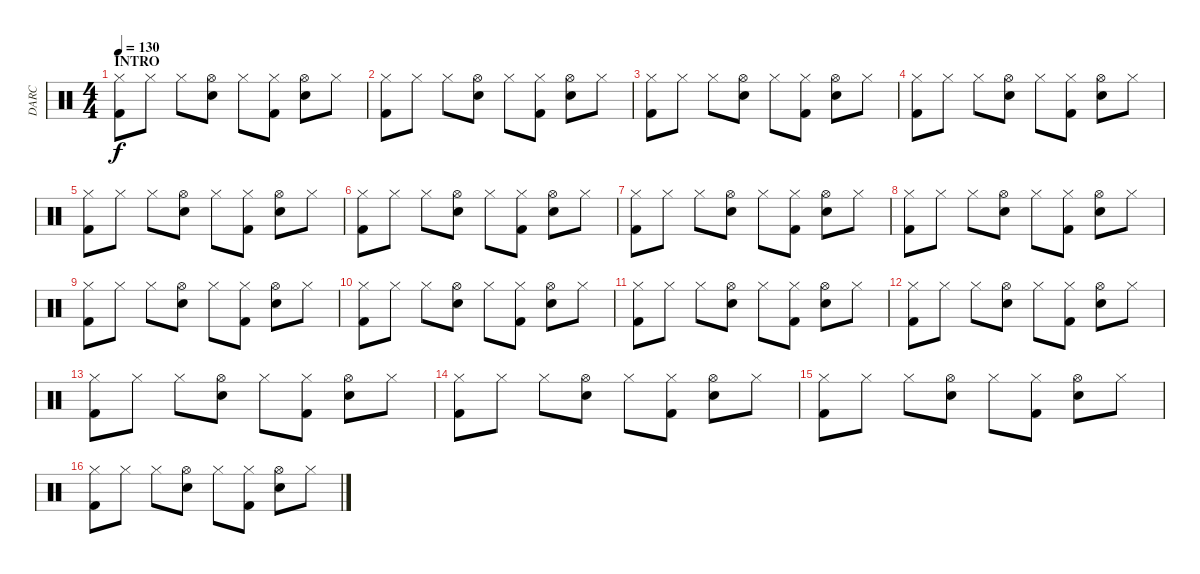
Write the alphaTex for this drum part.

\track ("DARC" "DARC") {instrument percussion}
\staff {score}
\articulation defaults
\ts (4 4)
\section ("" "INTRO")
\tempo 130
\clef neutral
\ks c
("Kick (hit) 2" "Hi-Hat (closed)").8{dy f} "Hi-Hat (closed)".8 "Hi-Hat (closed)".8 ("Snare (hit) 2" "Hi-Hat (open)").8 "Hi-Hat (closed)".8 ("Kick (hit) 2" "Hi-Hat (closed)").8 ("Snare (hit) 2" "Hi-Hat (open)").8 "Hi-Hat (closed)".8 |
("Kick (hit) 2" "Hi-Hat (closed)").8 "Hi-Hat (closed)".8 "Hi-Hat (closed)".8 ("Snare (hit) 2" "Hi-Hat (open)").8 "Hi-Hat (closed)".8 ("Kick (hit) 2" "Hi-Hat (closed)").8 ("Snare (hit) 2" "Hi-Hat (open)").8 "Hi-Hat (closed)".8 |
("Kick (hit) 2" "Hi-Hat (closed)").8 "Hi-Hat (closed)".8 "Hi-Hat (closed)".8 ("Snare (hit) 2" "Hi-Hat (open)").8 "Hi-Hat (closed)".8 ("Kick (hit) 2" "Hi-Hat (closed)").8 ("Snare (hit) 2" "Hi-Hat (open)").8 "Hi-Hat (closed)".8 |
("Kick (hit) 2" "Hi-Hat (closed)").8 "Hi-Hat (closed)".8 "Hi-Hat (closed)".8 ("Snare (hit) 2" "Hi-Hat (open)").8 "Hi-Hat (closed)".8 ("Kick (hit) 2" "Hi-Hat (closed)").8 ("Snare (hit) 2" "Hi-Hat (open)").8 "Hi-Hat (closed)".8 |
("Kick (hit) 2" "Hi-Hat (closed)").8 "Hi-Hat (closed)".8 "Hi-Hat (closed)".8 ("Snare (hit) 2" "Hi-Hat (open)").8 "Hi-Hat (closed)".8 ("Kick (hit) 2" "Hi-Hat (closed)").8 ("Snare (hit) 2" "Hi-Hat (open)").8 "Hi-Hat (closed)".8 |
("Kick (hit) 2" "Hi-Hat (closed)").8 "Hi-Hat (closed)".8 "Hi-Hat (closed)".8 ("Snare (hit) 2" "Hi-Hat (open)").8 "Hi-Hat (closed)".8 ("Kick (hit) 2" "Hi-Hat (closed)").8 ("Snare (hit) 2" "Hi-Hat (open)").8 "Hi-Hat (closed)".8 |
("Kick (hit) 2" "Hi-Hat (closed)").8 "Hi-Hat (closed)".8 "Hi-Hat (closed)".8 ("Snare (hit) 2" "Hi-Hat (open)").8 "Hi-Hat (closed)".8 ("Kick (hit) 2" "Hi-Hat (closed)").8 ("Snare (hit) 2" "Hi-Hat (open)").8 "Hi-Hat (closed)".8 |
("Kick (hit) 2" "Hi-Hat (closed)").8 "Hi-Hat (closed)".8 "Hi-Hat (closed)".8 ("Snare (hit) 2" "Hi-Hat (open)").8 "Hi-Hat (closed)".8 ("Kick (hit) 2" "Hi-Hat (closed)").8 ("Snare (hit) 2" "Hi-Hat (open)").8 "Hi-Hat (closed)".8 |
("Kick (hit) 2" "Hi-Hat (closed)").8 "Hi-Hat (closed)".8 "Hi-Hat (closed)".8 ("Snare (hit) 2" "Hi-Hat (open)").8 "Hi-Hat (closed)".8 ("Kick (hit) 2" "Hi-Hat (closed)").8 ("Snare (hit) 2" "Hi-Hat (open)").8 "Hi-Hat (closed)".8 |
("Kick (hit) 2" "Hi-Hat (closed)").8 "Hi-Hat (closed)".8 "Hi-Hat (closed)".8 ("Snare (hit) 2" "Hi-Hat (open)").8 "Hi-Hat (closed)".8 ("Kick (hit) 2" "Hi-Hat (closed)").8 ("Snare (hit) 2" "Hi-Hat (open)").8 "Hi-Hat (closed)".8 |
("Kick (hit) 2" "Hi-Hat (closed)").8 "Hi-Hat (closed)".8 "Hi-Hat (closed)".8 ("Snare (hit) 2" "Hi-Hat (open)").8 "Hi-Hat (closed)".8 ("Kick (hit) 2" "Hi-Hat (closed)").8 ("Snare (hit) 2" "Hi-Hat (open)").8 "Hi-Hat (closed)".8 |
("Kick (hit) 2" "Hi-Hat (closed)").8 "Hi-Hat (closed)".8 "Hi-Hat (closed)".8 ("Snare (hit) 2" "Hi-Hat (open)").8 "Hi-Hat (closed)".8 ("Kick (hit) 2" "Hi-Hat (closed)").8 ("Snare (hit) 2" "Hi-Hat (open)").8 "Hi-Hat (closed)".8 |
("Kick (hit) 2" "Hi-Hat (closed)").8 "Hi-Hat (closed)".8 "Hi-Hat (closed)".8 ("Snare (hit) 2" "Hi-Hat (open)").8 "Hi-Hat (closed)".8 ("Kick (hit) 2" "Hi-Hat (closed)").8 ("Snare (hit) 2" "Hi-Hat (open)").8 "Hi-Hat (closed)".8 |
("Kick (hit) 2" "Hi-Hat (closed)").8 "Hi-Hat (closed)".8 "Hi-Hat (closed)".8 ("Snare (hit) 2" "Hi-Hat (open)").8 "Hi-Hat (closed)".8 ("Kick (hit) 2" "Hi-Hat (closed)").8 ("Snare (hit) 2" "Hi-Hat (open)").8 "Hi-Hat (closed)".8 |
("Kick (hit) 2" "Hi-Hat (closed)").8 "Hi-Hat (closed)".8 "Hi-Hat (closed)".8 ("Snare (hit) 2" "Hi-Hat (open)").8 "Hi-Hat (closed)".8 ("Kick (hit) 2" "Hi-Hat (closed)").8 ("Snare (hit) 2" "Hi-Hat (open)").8 "Hi-Hat (closed)".8 |
("Kick (hit) 2" "Hi-Hat (closed)").8 "Hi-Hat (closed)".8 "Hi-Hat (closed)".8 ("Snare (hit) 2" "Hi-Hat (open)").8 "Hi-Hat (closed)".8 ("Kick (hit) 2" "Hi-Hat (closed)").8 ("Snare (hit) 2" "Hi-Hat (open)").8 "Hi-Hat (closed)".8
